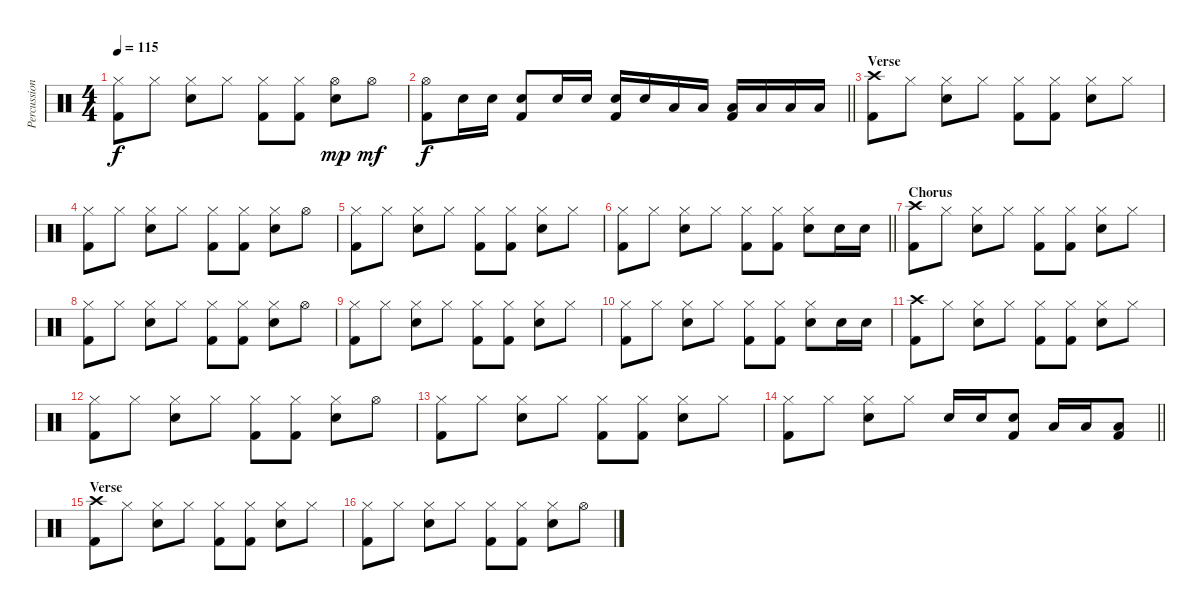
\track ("Percussions" "Percussion") {instrument percussion}
\staff {score}
\articulation defaults
\ts (4 4)
\tempo 115
\clef neutral
\ks c
("Hi-Hat (closed)" "Kick (hit) 2").8{dy f} "Hi-Hat (closed)".8 ("Hi-Hat (closed)" "Electric Snare (hit)").8 "Hi-Hat (closed)".8 ("Hi-Hat (closed)" "Kick (hit) 2").8 ("Hi-Hat (closed)" "Kick (hit) 2").8 ("Hi-Hat (open)" "Electric Snare (hit)").8{dy mp} "Hi-Hat (open)".8{dy mf} |
\barLineRight lightlight
("Hi-Hat (open)" "Kick (hit) 2").8{dy f} "Electric Snare (hit)".16 "Electric Snare (hit)".16 ("Kick (hit) 2" "Electric Snare (hit)").8 "Electric Snare (hit)".16 "Electric Snare (hit)".16 ("Kick (hit) 2" "Electric Snare (hit)").16 "Electric Snare (hit)".16 "Low Tom (hit)".16 "Low Tom (hit)".16 ("Kick (hit) 2" "Low Floor Tom (hit)").16 "Low Floor Tom (hit)".16 "Low Floor Tom (hit)".16 "Low Floor Tom (hit)".16 |
\section ("" "Verse")
("Crash high (hit)" "Kick (hit) 2").8 "Hi-Hat (closed)".8 ("Hi-Hat (closed)" "Electric Snare (hit)").8 "Hi-Hat (closed)".8 ("Hi-Hat (closed)" "Kick (hit) 2").8 ("Hi-Hat (closed)" "Kick (hit) 2").8 ("Hi-Hat (closed)" "Electric Snare (hit)").8 "Hi-Hat (closed)".8 |
("Hi-Hat (closed)" "Kick (hit) 2").8 "Hi-Hat (closed)".8 ("Hi-Hat (closed)" "Electric Snare (hit)").8 "Hi-Hat (closed)".8 ("Hi-Hat (closed)" "Kick (hit) 2").8 ("Hi-Hat (closed)" "Kick (hit) 2").8 ("Hi-Hat (closed)" "Electric Snare (hit)").8 "Hi-Hat (open)".8 |
("Hi-Hat (closed)" "Kick (hit) 2").8 "Hi-Hat (closed)".8 ("Hi-Hat (closed)" "Electric Snare (hit)").8 "Hi-Hat (closed)".8 ("Hi-Hat (closed)" "Kick (hit) 2").8 ("Hi-Hat (closed)" "Kick (hit) 2").8 ("Hi-Hat (closed)" "Electric Snare (hit)").8 "Hi-Hat (closed)".8 |
\barLineRight lightlight
("Hi-Hat (closed)" "Kick (hit) 2").8 "Hi-Hat (closed)".8 ("Hi-Hat (closed)" "Electric Snare (hit)").8 "Hi-Hat (closed)".8 ("Hi-Hat (closed)" "Kick (hit) 2").8 ("Hi-Hat (closed)" "Kick (hit) 2").8 ("Hi-Hat (closed)" "Electric Snare (hit)").8 "Electric Snare (hit)".16 "Electric Snare (hit)".16 |
\section ("" "Chorus")
("Crash high (hit)" "Kick (hit) 2").8 "Hi-Hat (closed)".8 ("Hi-Hat (closed)" "Electric Snare (hit)").8 "Hi-Hat (closed)".8 ("Hi-Hat (closed)" "Kick (hit) 2").8 ("Hi-Hat (closed)" "Kick (hit) 2").8 ("Hi-Hat (closed)" "Electric Snare (hit)").8 "Hi-Hat (closed)".8 |
("Hi-Hat (closed)" "Kick (hit) 2").8 "Hi-Hat (closed)".8 ("Hi-Hat (closed)" "Electric Snare (hit)").8 "Hi-Hat (closed)".8 ("Hi-Hat (closed)" "Kick (hit) 2").8 ("Hi-Hat (closed)" "Kick (hit) 2").8 ("Hi-Hat (closed)" "Electric Snare (hit)").8 "Hi-Hat (open)".8 |
("Hi-Hat (closed)" "Kick (hit) 2").8 "Hi-Hat (closed)".8 ("Hi-Hat (closed)" "Electric Snare (hit)").8 "Hi-Hat (closed)".8 ("Hi-Hat (closed)" "Kick (hit) 2").8 ("Hi-Hat (closed)" "Kick (hit) 2").8 ("Hi-Hat (closed)" "Electric Snare (hit)").8 "Hi-Hat (closed)".8 |
("Hi-Hat (closed)" "Kick (hit) 2").8 "Hi-Hat (closed)".8 ("Hi-Hat (closed)" "Electric Snare (hit)").8 "Hi-Hat (closed)".8 ("Hi-Hat (closed)" "Kick (hit) 2").8 ("Hi-Hat (closed)" "Kick (hit) 2").8 ("Hi-Hat (closed)" "Electric Snare (hit)").8 "Electric Snare (hit)".16 "Electric Snare (hit)".16 |
("Crash high (hit)" "Kick (hit) 2").8 "Hi-Hat (closed)".8 ("Hi-Hat (closed)" "Electric Snare (hit)").8 "Hi-Hat (closed)".8 ("Hi-Hat (closed)" "Kick (hit) 2").8 ("Hi-Hat (closed)" "Kick (hit) 2").8 ("Hi-Hat (closed)" "Electric Snare (hit)").8 "Hi-Hat (closed)".8 |
("Hi-Hat (closed)" "Kick (hit) 2").8 "Hi-Hat (closed)".8 ("Hi-Hat (closed)" "Electric Snare (hit)").8 "Hi-Hat (closed)".8 ("Hi-Hat (closed)" "Kick (hit) 2").8 ("Hi-Hat (closed)" "Kick (hit) 2").8 ("Hi-Hat (closed)" "Electric Snare (hit)").8 "Hi-Hat (open)".8 |
("Hi-Hat (closed)" "Kick (hit) 2").8 "Hi-Hat (closed)".8 ("Hi-Hat (closed)" "Electric Snare (hit)").8 "Hi-Hat (closed)".8 ("Hi-Hat (closed)" "Kick (hit) 2").8 ("Hi-Hat (closed)" "Kick (hit) 2").8 ("Hi-Hat (closed)" "Electric Snare (hit)").8 "Hi-Hat (closed)".8 |
\barLineRight lightlight
("Hi-Hat (closed)" "Kick (hit) 2").8 "Hi-Hat (closed)".8 ("Hi-Hat (closed)" "Electric Snare (hit)").8 "Hi-Hat (closed)".8 "Electric Snare (hit)".16 "Electric Snare (hit)".16 ("Kick (hit) 2" "Electric Snare (hit)").8 "Low Floor Tom (hit)".16 "Low Floor Tom (hit)".16 ("Kick (hit) 2" "Low Floor Tom (hit)").8 |
\section ("" "Verse")
("Crash high (hit)" "Kick (hit) 2").8 "Hi-Hat (closed)".8 ("Hi-Hat (closed)" "Electric Snare (hit)").8 "Hi-Hat (closed)".8 ("Hi-Hat (closed)" "Kick (hit) 2").8 ("Hi-Hat (closed)" "Kick (hit) 2").8 ("Hi-Hat (closed)" "Electric Snare (hit)").8 "Hi-Hat (closed)".8 |
("Hi-Hat (closed)" "Kick (hit) 2").8 "Hi-Hat (closed)".8 ("Hi-Hat (closed)" "Electric Snare (hit)").8 "Hi-Hat (closed)".8 ("Hi-Hat (closed)" "Kick (hit) 2").8 ("Hi-Hat (closed)" "Kick (hit) 2").8 ("Hi-Hat (closed)" "Electric Snare (hit)").8 "Hi-Hat (open)".8
